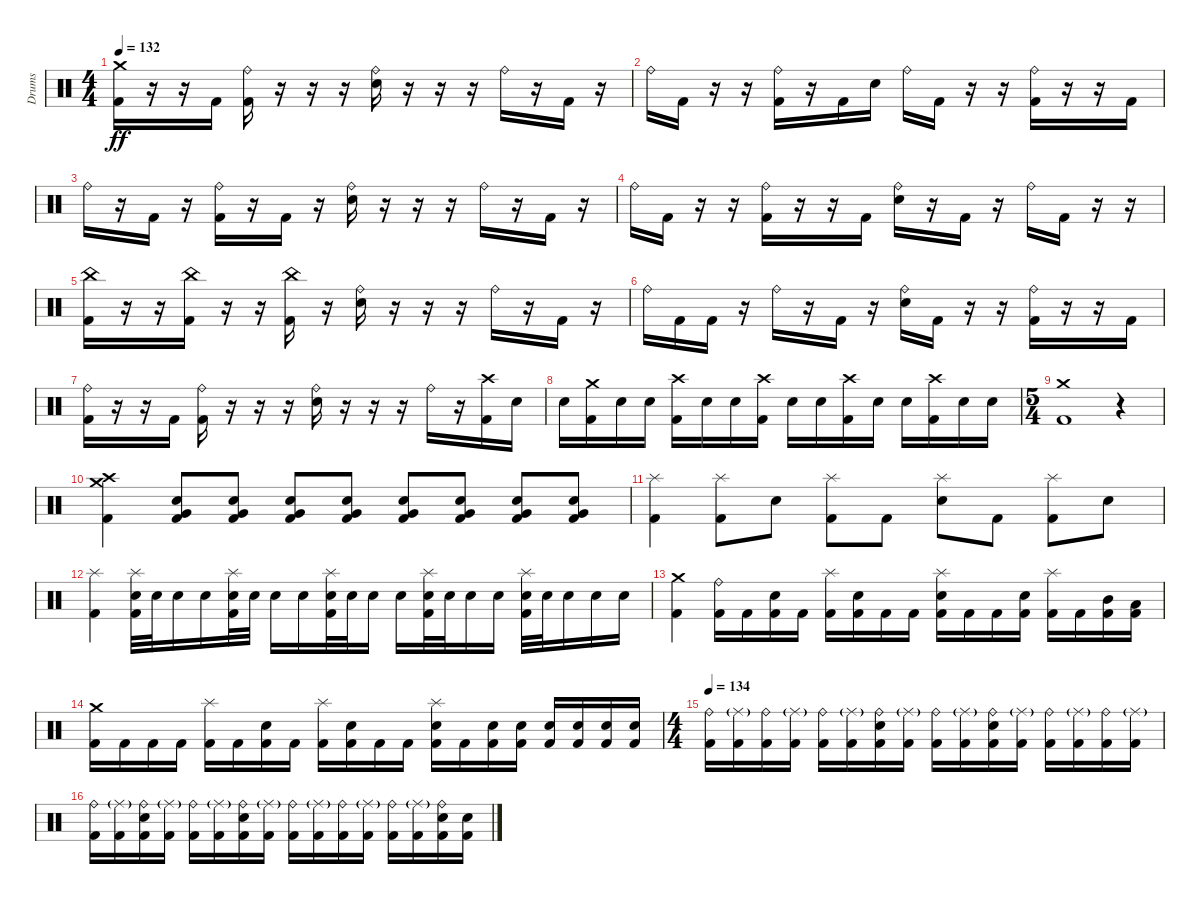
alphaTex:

\track ("Drums" "Drums") {instrument percussion}
\staff {score}
\articulation defaults
\ts (4 4)
\tempo 132
\clef neutral
\ks c
("Crash medium (hit)" "Kick (hit) 2").16{dy ff} r.16 r.16 "Kick (hit) 2".16 ("Ride (bell)" "Kick (hit) 2").16 r.16 r.16 r.16 ("Ride (bell)" "Electric Snare (hit)").16 r.16 r.16 r.16 "Ride (bell)".16 r.16 "Kick (hit) 2".16 r.16 |
"Ride (bell)".16 "Kick (hit) 2".16 r.16 r.16 ("Ride (bell)" "Kick (hit) 2").16 r.16 "Kick (hit) 2".16 "Electric Snare (hit)".16 "Ride (bell)".16 "Kick (hit) 2".16 r.16 r.16 ("Ride (bell)" "Kick (hit) 2").16 r.16 r.16 "Kick (hit) 2".16 |
"Ride (bell)".16 r.16 "Kick (hit) 2".16 r.16 ("Ride (bell)" "Kick (hit) 2").16 r.16 "Kick (hit) 2".16 r.16 ("Ride (bell)" "Electric Snare (hit)").16 r.16 r.16 r.16 "Ride (bell)".16 r.16 "Kick (hit) 2".16 r.16 |
"Ride (bell)".16 "Kick (hit) 2".16 r.16 r.16 ("Ride (bell)" "Kick (hit) 2").16 r.16 r.16 "Kick (hit) 2".16 ("Ride (bell)" "Electric Snare (hit)").16 r.16 "Kick (hit) 2".16 r.16 "Ride (bell)".16 "Kick (hit) 2".16 r.16 r.16 |
("China (hit)" "Kick (hit) 2").16 r.16 r.16 ("China (hit)" "Kick (hit) 2").16 r.16 r.16 ("China (hit)" "Kick (hit) 2").16 r.16 ("Ride (bell)" "Electric Snare (hit)").16 r.16 r.16 r.16 "Ride (bell)".16 r.16 "Kick (hit) 2".16 r.16 |
"Ride (bell)".16 "Kick (hit) 2".16 "Kick (hit) 2".16 r.16 "Ride (bell)".16 r.16 "Kick (hit) 2".16 r.16 ("Ride (bell)" "Electric Snare (hit)").16 "Kick (hit) 2".16 r.16 r.16 ("Ride (bell)" "Kick (hit) 2").16 r.16 r.16 "Kick (hit) 2".16 |
("Ride (bell)" "Kick (hit) 2").16 r.16 r.16 "Kick (hit) 2".16 ("Ride (bell)" "Kick (hit) 2").16 r.16 r.16 r.16 ("Ride (bell)" "Electric Snare (hit)").16 r.16 r.16 r.16 "Ride (bell)".16 r.16 ("Crash high (hit)" "Kick (hit) 2").16 "Electric Snare (hit)".16 |
"Electric Snare (hit)".16 ("Crash medium (hit)" "Kick (hit) 2").16 "Electric Snare (hit)".16 "Electric Snare (hit)".16 ("Crash high (hit)" "Kick (hit) 2").16 "Electric Snare (hit)".16 "Electric Snare (hit)".16 ("Crash high (hit)" "Kick (hit) 2").16 "Electric Snare (hit)".16 "Electric Snare (hit)".16 ("Crash high (hit)" "Kick (hit) 2").16 "Electric Snare (hit)".16 "Electric Snare (hit)".16 ("Crash high (hit)" "Kick (hit) 2").16 "Electric Snare (hit)".16 "Electric Snare (hit)".16 |
\ts (5 4)
("Crash medium (hit)" "Kick (hit) 2").1 r.4 |
("Crash medium (hit)" "Crash high (hit)" "Kick (hit) 2").4 ("Very Low Tom (hit)" "Electric Snare (hit)" "Kick (hit) 2").8 ("Very Low Tom (hit)" "Electric Snare (hit)" "Kick (hit) 2").8 ("Very Low Tom (hit)" "Electric Snare (hit)" "Kick (hit) 2").8 ("Very Low Tom (hit)" "Electric Snare (hit)" "Kick (hit) 2").8 ("Very Low Tom (hit)" "Electric Snare (hit)" "Kick (hit) 2").8 ("Very Low Tom (hit)" "Electric Snare (hit)" "Kick (hit) 2").8 ("Very Low Tom (hit)" "Electric Snare (hit)" "Kick (hit) 2").8 ("Very Low Tom (hit)" "Electric Snare (hit)" "Kick (hit) 2").8 |
("Splash (hit)" "Kick (hit) 2").4 ("Splash (hit)" "Kick (hit) 2").8 "Electric Snare (hit)".8 ("Splash (hit)" "Kick (hit) 2").8 "Kick (hit) 2".8 ("Splash (hit)" "Electric Snare (hit)").8 "Kick (hit) 2".8 ("Splash (hit)" "Kick (hit) 2").8 "Electric Snare (hit)".8 |
("Splash (hit)" "Kick (hit) 2").4 ("Splash (hit)" "Electric Snare (hit)" "Kick (hit) 2").32 "Electric Snare (hit)".32 "Electric Snare (hit)".16 "Electric Snare (hit)".16 ("Splash (hit)" "Electric Snare (hit)" "Kick (hit) 2").32 "Electric Snare (hit)".32 "Electric Snare (hit)".16 "Electric Snare (hit)".16 ("Splash (hit)" "Electric Snare (hit)" "Kick (hit) 2").32 "Electric Snare (hit)".32 "Electric Snare (hit)".16 "Electric Snare (hit)".16 ("Splash (hit)" "Electric Snare (hit)" "Kick (hit) 2").32 "Electric Snare (hit)".32 "Electric Snare (hit)".16 "Electric Snare (hit)".16 ("Splash (hit)" "Electric Snare (hit)" "Kick (hit) 2").32 "Electric Snare (hit)".32 "Electric Snare (hit)".16 "Electric Snare (hit)".16 "Electric Snare (hit)".16 |
("Crash medium (hit)" "Kick (hit) 2").4 ("Ride (bell)" "Kick (hit) 2").16 "Kick (hit) 2".16 ("Electric Snare (hit)" "Kick (hit) 2").16 "Kick (hit) 2".16 ("Splash (hit)" "Kick (hit) 2").16 ("Electric Snare (hit)" "Kick (hit) 2").16 "Kick (hit) 2".16 "Kick (hit) 2".16 ("Splash (hit)" "Electric Snare (hit)" "Kick (hit) 2").16 "Kick (hit) 2".16 "Kick (hit) 2".16 ("Electric Snare (hit)" "Kick (hit) 2").16 ("Splash (hit)" "Kick (hit) 2").16 "Kick (hit) 2".16 ("Mid Tom (hit)" "Kick (hit) 2").16 ("Low Tom (hit)" "Kick (hit) 2").16 |
("Crash medium (hit)" "Kick (hit) 2").16 "Kick (hit) 2".16 "Kick (hit) 2".16 "Kick (hit) 2".16 ("Splash (hit)" "Kick (hit) 2").16 "Kick (hit) 2".16 ("Electric Snare (hit)" "Kick (hit) 2").16 "Kick (hit) 2".16 ("Splash (hit)" "Kick (hit) 2").16 ("Electric Snare (hit)" "Kick (hit) 2").16 "Kick (hit) 2".16 "Kick (hit) 2".16 ("Splash (hit)" "Electric Snare (hit)" "Kick (hit) 2").16 "Kick (hit) 2".16 ("Electric Snare (hit)" "Kick (hit) 2").16 ("Electric Snare (hit)" "Kick (hit) 2").16 ("Electric Snare (hit)" "Kick (hit) 2").16 ("Electric Snare (hit)" "Kick (hit) 2").16 ("Electric Snare (hit)" "Kick (hit) 2").16 ("Electric Snare (hit)" "Kick (hit) 2").16 |
\ts (4 4)
\tempo 134
("Ride (bell)" "Kick (hit) 2").16 ("Ride (middle)"{g} "Kick (hit) 2").16 ("Ride (bell)" "Kick (hit) 2").16 ("Ride (middle)"{g} "Kick (hit) 2").16 ("Ride (bell)" "Kick (hit) 2").16 ("Ride (middle)"{g} "Kick (hit) 2").16 ("Ride (bell)" "Electric Snare (hit)" "Kick (hit) 2").16 ("Ride (middle)"{g} "Kick (hit) 2").16 ("Ride (bell)" "Kick (hit) 2").16 ("Ride (middle)"{g} "Kick (hit) 2").16 ("Ride (bell)" "Electric Snare (hit)" "Kick (hit) 2").16 ("Ride (middle)"{g} "Kick (hit) 2").16 ("Ride (bell)" "Kick (hit) 2").16 ("Ride (middle)"{g} "Kick (hit) 2").16 ("Ride (bell)" "Kick (hit) 2").16 ("Ride (middle)"{g} "Kick (hit) 2").16 |
("Ride (bell)" "Kick (hit) 2").16 ("Ride (middle)"{g} "Kick (hit) 2").16 ("Ride (bell)" "Electric Snare (hit)" "Kick (hit) 2").16 ("Ride (middle)"{g} "Kick (hit) 2").16 ("Ride (bell)" "Kick (hit) 2").16 ("Ride (middle)"{g} "Kick (hit) 2").16 ("Ride (bell)" "Electric Snare (hit)" "Kick (hit) 2").16 ("Ride (middle)"{g} "Kick (hit) 2").16 ("Ride (bell)" "Kick (hit) 2").16 ("Ride (middle)"{g} "Kick (hit) 2").16 ("Ride (bell)" "Kick (hit) 2").16 ("Ride (middle)"{g} "Kick (hit) 2").16 ("Ride (bell)" "Kick (hit) 2").16 ("Ride (middle)"{g} "Kick (hit) 2").16 ("Ride (bell)" "Electric Snare (hit)" "Kick (hit) 2").16 ("Electric Snare (hit)" "Kick (hit) 2").16
